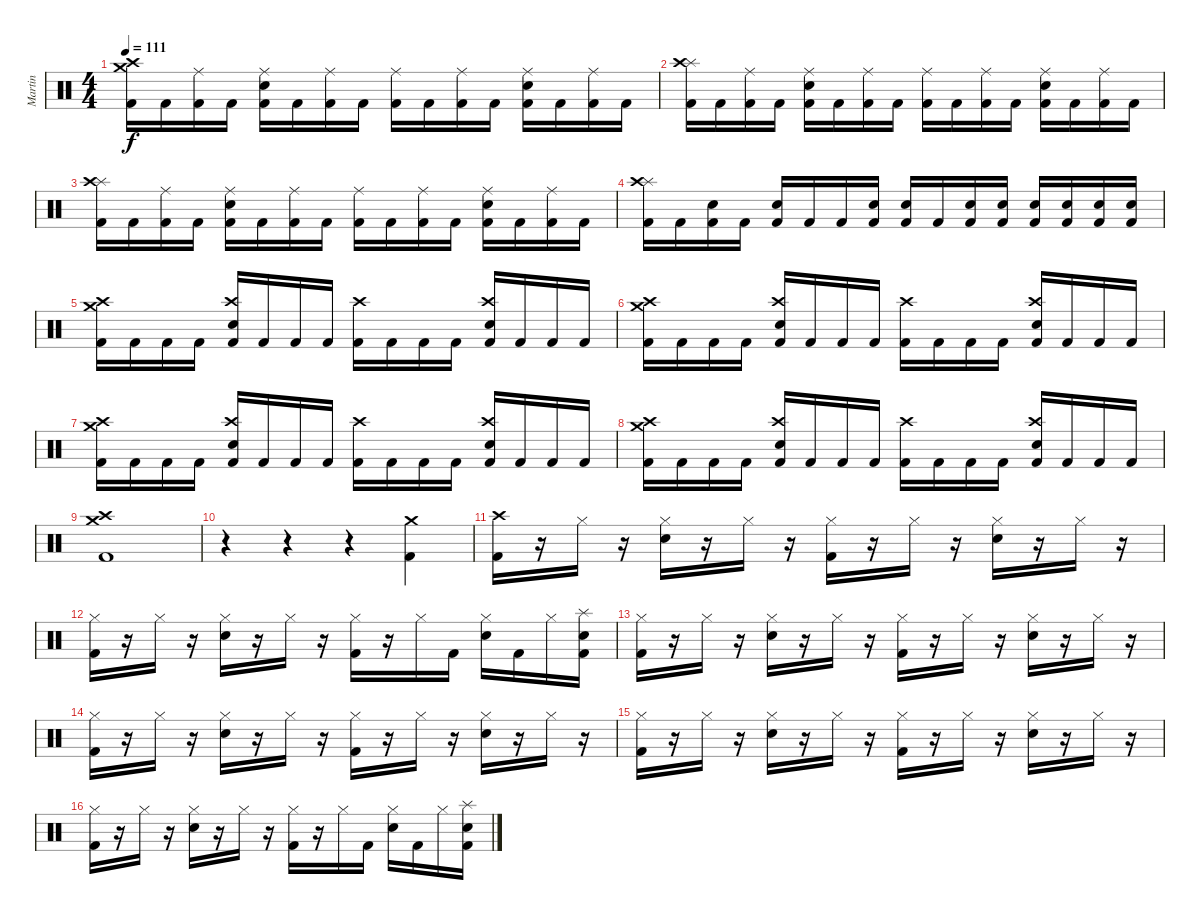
\track ("Martin" "Martin") {instrument percussion}
\staff {score}
\articulation defaults
\ts (4 4)
\tempo 111
\clef neutral
\ks c
("Kick (hit) 2" "Crash high (hit)" "Crash medium (hit)").16{dy f} "Kick (hit) 2".16 ("Kick (hit) 2" "Ride (middle)").16 "Kick (hit) 2".16 ("Kick (hit) 2" "Electric Snare (hit)" "Ride (middle)").16 "Kick (hit) 2".16 ("Kick (hit) 2" "Ride (middle)").16 "Kick (hit) 2".16 ("Kick (hit) 2" "Ride (middle)").16 "Kick (hit) 2".16 ("Kick (hit) 2" "Ride (middle)").16 "Kick (hit) 2".16 ("Kick (hit) 2" "Electric Snare (hit)" "Ride (middle)").16 "Kick (hit) 2".16 ("Kick (hit) 2" "Ride (middle)").16 "Kick (hit) 2".16 |
("Kick (hit) 2" "Splash (hit)" "Crash high (hit)").16 "Kick (hit) 2".16 ("Kick (hit) 2" "Ride (middle)").16 "Kick (hit) 2".16 ("Kick (hit) 2" "Electric Snare (hit)" "Ride (middle)").16 "Kick (hit) 2".16 ("Kick (hit) 2" "Ride (middle)").16 "Kick (hit) 2".16 ("Kick (hit) 2" "Ride (middle)").16 "Kick (hit) 2".16 ("Kick (hit) 2" "Ride (middle)").16 "Kick (hit) 2".16 ("Kick (hit) 2" "Electric Snare (hit)" "Ride (middle)").16 "Kick (hit) 2".16 ("Kick (hit) 2" "Ride (middle)").16 "Kick (hit) 2".16 |
("Kick (hit) 2" "Splash (hit)" "Crash high (hit)").16 "Kick (hit) 2".16 ("Kick (hit) 2" "Ride (middle)").16 "Kick (hit) 2".16 ("Kick (hit) 2" "Electric Snare (hit)" "Ride (middle)").16 "Kick (hit) 2".16 ("Kick (hit) 2" "Ride (middle)").16 "Kick (hit) 2".16 ("Kick (hit) 2" "Ride (middle)").16 "Kick (hit) 2".16 ("Kick (hit) 2" "Ride (middle)").16 "Kick (hit) 2".16 ("Kick (hit) 2" "Electric Snare (hit)" "Ride (middle)").16 "Kick (hit) 2".16 ("Kick (hit) 2" "Ride (middle)").16 "Kick (hit) 2".16 |
("Kick (hit) 2" "Splash (hit)" "Crash high (hit)").16 "Kick (hit) 2".16 ("Kick (hit) 2" "Electric Snare (hit)").16 "Kick (hit) 2".16 ("Kick (hit) 2" "Electric Snare (hit)").16 "Kick (hit) 2".16 "Kick (hit) 2".16 ("Kick (hit) 2" "Electric Snare (hit)").16 ("Kick (hit) 2" "Electric Snare (hit)").16 "Kick (hit) 2".16 ("Kick (hit) 2" "Electric Snare (hit)").16 ("Kick (hit) 2" "Electric Snare (hit)").16 ("Kick (hit) 2" "Electric Snare (hit)").16 ("Kick (hit) 2" "Electric Snare (hit)").16 ("Kick (hit) 2" "Electric Snare (hit)").16 ("Kick (hit) 2" "Electric Snare (hit)").16 |
("Kick (hit) 2" "Crash high (hit)" "Crash medium (hit)").16 "Kick (hit) 2".16 "Kick (hit) 2".16 "Kick (hit) 2".16 ("Kick (hit) 2" "Electric Snare (hit)" "Crash high (hit)").16 "Kick (hit) 2".16 "Kick (hit) 2".16 "Kick (hit) 2".16 ("Kick (hit) 2" "Crash high (hit)").16 "Kick (hit) 2".16 "Kick (hit) 2".16 "Kick (hit) 2".16 ("Kick (hit) 2" "Electric Snare (hit)" "Crash high (hit)").16 "Kick (hit) 2".16 "Kick (hit) 2".16 "Kick (hit) 2".16 |
("Kick (hit) 2" "Crash high (hit)" "Crash medium (hit)").16 "Kick (hit) 2".16 "Kick (hit) 2".16 "Kick (hit) 2".16 ("Kick (hit) 2" "Electric Snare (hit)" "Crash high (hit)").16 "Kick (hit) 2".16 "Kick (hit) 2".16 "Kick (hit) 2".16 ("Kick (hit) 2" "Crash high (hit)").16 "Kick (hit) 2".16 "Kick (hit) 2".16 "Kick (hit) 2".16 ("Kick (hit) 2" "Electric Snare (hit)" "Crash high (hit)").16 "Kick (hit) 2".16 "Kick (hit) 2".16 "Kick (hit) 2".16 |
("Kick (hit) 2" "Crash high (hit)" "Crash medium (hit)").16 "Kick (hit) 2".16 "Kick (hit) 2".16 "Kick (hit) 2".16 ("Kick (hit) 2" "Electric Snare (hit)" "Crash high (hit)").16 "Kick (hit) 2".16 "Kick (hit) 2".16 "Kick (hit) 2".16 ("Kick (hit) 2" "Crash high (hit)").16 "Kick (hit) 2".16 "Kick (hit) 2".16 "Kick (hit) 2".16 ("Kick (hit) 2" "Electric Snare (hit)" "Crash high (hit)").16 "Kick (hit) 2".16 "Kick (hit) 2".16 "Kick (hit) 2".16 |
("Kick (hit) 2" "Crash high (hit)" "Crash medium (hit)").16 "Kick (hit) 2".16 "Kick (hit) 2".16 "Kick (hit) 2".16 ("Kick (hit) 2" "Electric Snare (hit)" "Crash high (hit)").16 "Kick (hit) 2".16 "Kick (hit) 2".16 "Kick (hit) 2".16 ("Kick (hit) 2" "Crash high (hit)").16 "Kick (hit) 2".16 "Kick (hit) 2".16 "Kick (hit) 2".16 ("Kick (hit) 2" "Electric Snare (hit)" "Crash high (hit)").16 "Kick (hit) 2".16 "Kick (hit) 2".16 "Kick (hit) 2".16 |
("Kick (hit) 2" "Crash high (hit)" "Crash medium (hit)").1 |
r.4 r.4 r.4 ("Kick (hit) 2" "Crash medium (hit)").4 |
("Kick (hit) 2" "Crash high (hit)").16 r.16 "Hi-Hat (closed)".16 r.16 ("Electric Snare (hit)" "Hi-Hat (closed)").16 r.16 "Hi-Hat (closed)".16 r.16 ("Kick (hit) 2" "Hi-Hat (closed)").16 r.16 "Hi-Hat (closed)".16 r.16 ("Electric Snare (hit)" "Hi-Hat (closed)").16 r.16 "Hi-Hat (closed)".16 r.16 |
("Kick (hit) 2" "Hi-Hat (closed)").16 r.16 "Hi-Hat (closed)".16 r.16 ("Electric Snare (hit)" "Hi-Hat (closed)").16 r.16 "Hi-Hat (closed)".16 r.16 ("Kick (hit) 2" "Hi-Hat (closed)").16 r.16 "Hi-Hat (closed)".16 "Kick (hit) 2".16 ("Electric Snare (hit)" "Hi-Hat (closed)").16 "Kick (hit) 2".16 "Hi-Hat (closed)".16 ("Kick (hit) 2" "Electric Snare (hit)" "Splash (hit)").16 |
("Kick (hit) 2" "Hi-Hat (closed)").16 r.16 "Hi-Hat (closed)".16 r.16 ("Electric Snare (hit)" "Hi-Hat (closed)").16 r.16 "Hi-Hat (closed)".16 r.16 ("Kick (hit) 2" "Hi-Hat (closed)").16 r.16 "Hi-Hat (closed)".16 r.16 ("Electric Snare (hit)" "Hi-Hat (closed)").16 r.16 "Hi-Hat (closed)".16 r.16 |
("Kick (hit) 2" "Hi-Hat (closed)").16 r.16 "Hi-Hat (closed)".16 r.16 ("Electric Snare (hit)" "Hi-Hat (closed)").16 r.16 "Hi-Hat (closed)".16 r.16 ("Kick (hit) 2" "Hi-Hat (closed)").16 r.16 "Hi-Hat (closed)".16 r.16 ("Electric Snare (hit)" "Hi-Hat (closed)").16 r.16 "Hi-Hat (closed)".16 r.16 |
("Kick (hit) 2" "Hi-Hat (closed)").16 r.16 "Hi-Hat (closed)".16 r.16 ("Electric Snare (hit)" "Hi-Hat (closed)").16 r.16 "Hi-Hat (closed)".16 r.16 ("Kick (hit) 2" "Hi-Hat (closed)").16 r.16 "Hi-Hat (closed)".16 r.16 ("Electric Snare (hit)" "Hi-Hat (closed)").16 r.16 "Hi-Hat (closed)".16 r.16 |
("Kick (hit) 2" "Hi-Hat (closed)").16 r.16 "Hi-Hat (closed)".16 r.16 ("Electric Snare (hit)" "Hi-Hat (closed)").16 r.16 "Hi-Hat (closed)".16 r.16 ("Kick (hit) 2" "Hi-Hat (closed)").16 r.16 "Hi-Hat (closed)".16 "Kick (hit) 2".16 ("Electric Snare (hit)" "Hi-Hat (closed)").16 "Kick (hit) 2".16 "Hi-Hat (closed)".16 ("Kick (hit) 2" "Electric Snare (hit)" "Splash (hit)").16
